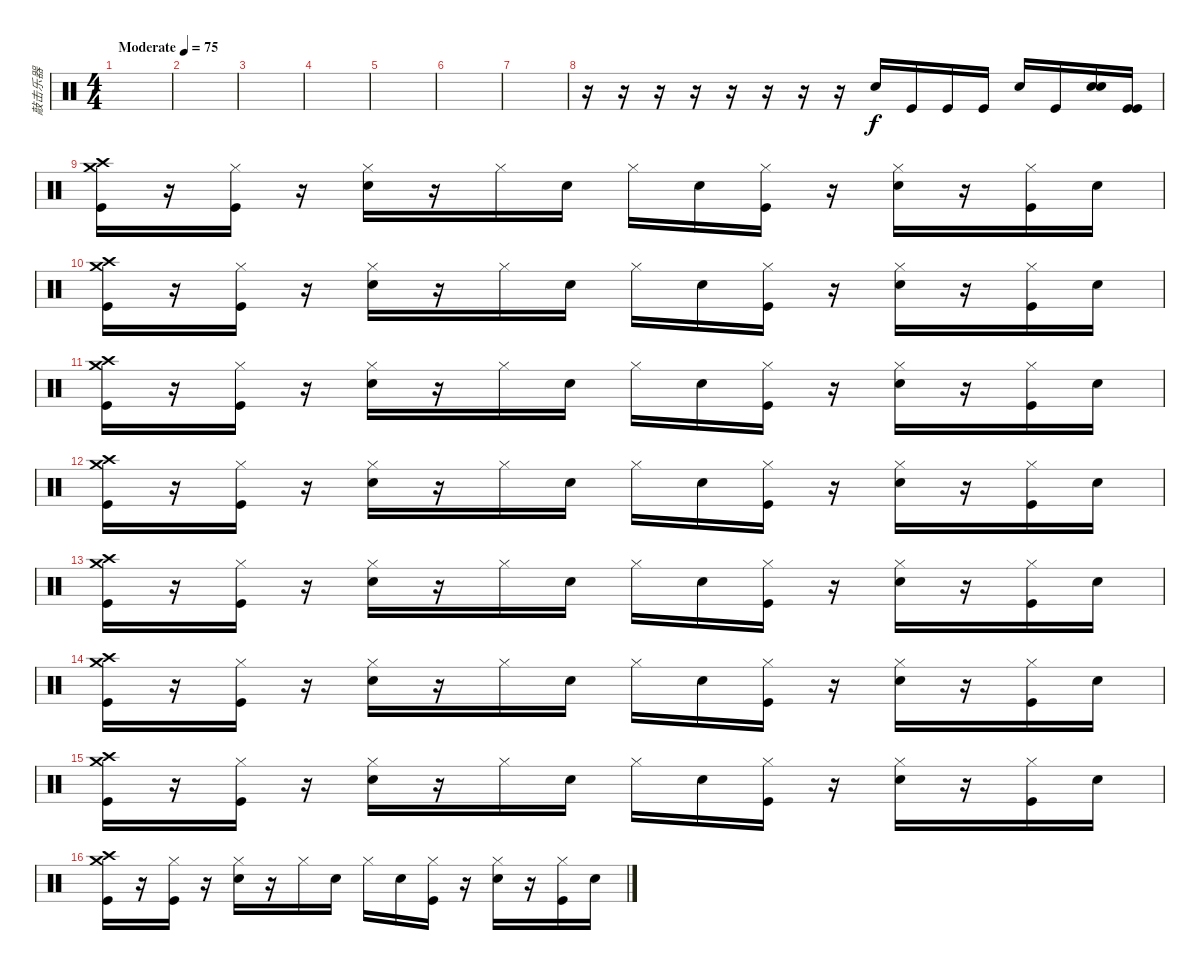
\track ("敲击乐器" "敲击乐器") {instrument percussion}
\staff {score}
\articulation defaults
\ts (4 4)
\tempo (75 "Moderate")
\clef neutral
\ks c
|
|
|
|
|
|
|
r.16 r.16 r.16 r.16 r.16 r.16 r.16 r.16 "Snare (hit) 2".16 "Kick (hit)".16 "Kick (hit)".16 "Kick (hit)".16 "Snare (hit) 2".16 "Kick (hit)".16 ("Snare (hit) 2" "Snare (hit) 2").16 ("Kick (hit)" "Kick (hit)").16 |
("Crash medium (hit)" "Crash high (hit)" "Kick (hit)").16 r.16 ("Hi-Hat (closed)" "Kick (hit)").16 r.16 ("Hi-Hat (closed)" "Snare (hit) 2").16 r.16 "Hi-Hat (closed)".16 "Snare (hit) 2".16 "Hi-Hat (closed)".16 "Snare (hit) 2".16 ("Hi-Hat (closed)" "Kick (hit)").16 r.16 ("Hi-Hat (closed)" "Snare (hit) 2").16 r.16 ("Hi-Hat (closed)" "Kick (hit)").16 "Snare (hit) 2".16 |
("Crash medium (hit)" "Crash high (hit)" "Kick (hit)").16 r.16 ("Hi-Hat (closed)" "Kick (hit)").16 r.16 ("Hi-Hat (closed)" "Snare (hit) 2").16 r.16 "Hi-Hat (closed)".16 "Snare (hit) 2".16 "Hi-Hat (closed)".16 "Snare (hit) 2".16 ("Hi-Hat (closed)" "Kick (hit)").16 r.16 ("Hi-Hat (closed)" "Snare (hit) 2").16 r.16 ("Hi-Hat (closed)" "Kick (hit)").16 "Snare (hit) 2".16 |
("Crash medium (hit)" "Crash high (hit)" "Kick (hit)").16 r.16 ("Hi-Hat (closed)" "Kick (hit)").16 r.16 ("Hi-Hat (closed)" "Snare (hit) 2").16 r.16 "Hi-Hat (closed)".16 "Snare (hit) 2".16 "Hi-Hat (closed)".16 "Snare (hit) 2".16 ("Hi-Hat (closed)" "Kick (hit)").16 r.16 ("Hi-Hat (closed)" "Snare (hit) 2").16 r.16 ("Hi-Hat (closed)" "Kick (hit)").16 "Snare (hit) 2".16 |
("Crash medium (hit)" "Crash high (hit)" "Kick (hit)").16 r.16 ("Hi-Hat (closed)" "Kick (hit)").16 r.16 ("Hi-Hat (closed)" "Snare (hit) 2").16 r.16 "Hi-Hat (closed)".16 "Snare (hit) 2".16 "Hi-Hat (closed)".16 "Snare (hit) 2".16 ("Hi-Hat (closed)" "Kick (hit)").16 r.16 ("Hi-Hat (closed)" "Snare (hit) 2").16 r.16 ("Hi-Hat (closed)" "Kick (hit)").16 "Snare (hit) 2".16 |
("Crash medium (hit)" "Crash high (hit)" "Kick (hit)").16 r.16 ("Hi-Hat (closed)" "Kick (hit)").16 r.16 ("Hi-Hat (closed)" "Snare (hit) 2").16 r.16 "Hi-Hat (closed)".16 "Snare (hit) 2".16 "Hi-Hat (closed)".16 "Snare (hit) 2".16 ("Hi-Hat (closed)" "Kick (hit)").16 r.16 ("Hi-Hat (closed)" "Snare (hit) 2").16 r.16 ("Hi-Hat (closed)" "Kick (hit)").16 "Snare (hit) 2".16 |
("Crash medium (hit)" "Crash high (hit)" "Kick (hit)").16 r.16 ("Hi-Hat (closed)" "Kick (hit)").16 r.16 ("Hi-Hat (closed)" "Snare (hit) 2").16 r.16 "Hi-Hat (closed)".16 "Snare (hit) 2".16 "Hi-Hat (closed)".16 "Snare (hit) 2".16 ("Hi-Hat (closed)" "Kick (hit)").16 r.16 ("Hi-Hat (closed)" "Snare (hit) 2").16 r.16 ("Hi-Hat (closed)" "Kick (hit)").16 "Snare (hit) 2".16 |
("Crash medium (hit)" "Crash high (hit)" "Kick (hit)").16 r.16 ("Hi-Hat (closed)" "Kick (hit)").16 r.16 ("Hi-Hat (closed)" "Snare (hit) 2").16 r.16 "Hi-Hat (closed)".16 "Snare (hit) 2".16 "Hi-Hat (closed)".16 "Snare (hit) 2".16 ("Hi-Hat (closed)" "Kick (hit)").16 r.16 ("Hi-Hat (closed)" "Snare (hit) 2").16 r.16 ("Hi-Hat (closed)" "Kick (hit)").16 "Snare (hit) 2".16 |
("Crash medium (hit)" "Crash high (hit)" "Kick (hit)").16 r.16 ("Hi-Hat (closed)" "Kick (hit)").16 r.16 ("Hi-Hat (closed)" "Snare (hit) 2").16 r.16 "Hi-Hat (closed)".16 "Snare (hit) 2".16 "Hi-Hat (closed)".16 "Snare (hit) 2".16 ("Hi-Hat (closed)" "Kick (hit)").16 r.16 ("Hi-Hat (closed)" "Snare (hit) 2").16 r.16 ("Hi-Hat (closed)" "Kick (hit)").16 "Snare (hit) 2".16
